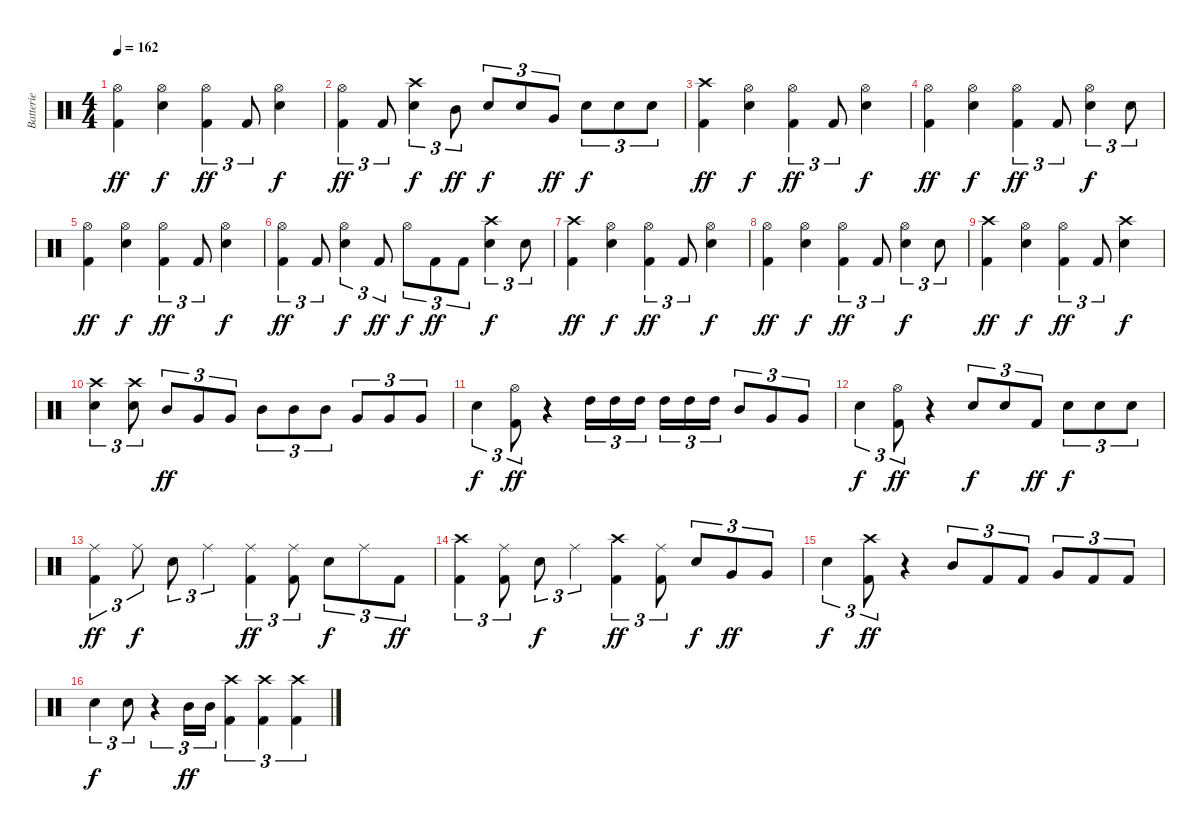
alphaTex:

\track ("Batterie" "Batterie") {instrument percussion}
\staff {score}
\articulation defaults
\ts (4 4)
\tempo 162
\clef neutral
\ks c
("Hi-Hat (open)" "Kick (hit) 2").4{dy ff} ("Hi-Hat (open)" "Snare (hit) 2").4{dy f} ("Hi-Hat (open)" "Kick (hit) 2").4{tu (3 2) dy ff} "Kick (hit) 2".8{tu (3 2)} ("Hi-Hat (open)" "Snare (hit) 2").4{dy f} |
("Hi-Hat (open)" "Kick (hit) 2").4{tu (3 2) dy ff} "Kick (hit) 2".8{tu (3 2)} ("Crash high (hit)" "Snare (hit) 2").4{tu (3 2) dy f} "Mid Tom (hit)".8{tu (3 2) dy ff} "Snare (hit) 2".8{tu (3 2) dy f} "Snare (hit) 2".8{tu (3 2)} "Very Low Tom (hit)".8{tu (3 2) dy ff} "Snare (hit) 2".8{tu (3 2) dy f} "Snare (hit) 2".8{tu (3 2)} "Snare (hit) 2".8{tu (3 2)} |
("Crash high (hit)" "Kick (hit) 2").4{dy ff} ("Hi-Hat (open)" "Snare (hit) 2").4{dy f} ("Hi-Hat (open)" "Kick (hit) 2").4{tu (3 2) dy ff} "Kick (hit) 2".8{tu (3 2)} ("Hi-Hat (open)" "Snare (hit) 2").4{dy f} |
("Hi-Hat (open)" "Kick (hit) 2").4{dy ff} ("Hi-Hat (open)" "Snare (hit) 2").4{dy f} ("Hi-Hat (open)" "Kick (hit) 2").4{tu (3 2) dy ff} "Kick (hit) 2".8{tu (3 2)} ("Hi-Hat (open)" "Snare (hit) 2").4{tu (3 2) dy f} "Snare (hit) 2".8{tu (3 2)} |
("Hi-Hat (open)" "Kick (hit) 2").4{dy ff} ("Hi-Hat (open)" "Snare (hit) 2").4{dy f} ("Hi-Hat (open)" "Kick (hit) 2").4{tu (3 2) dy ff} "Kick (hit) 2".8{tu (3 2)} ("Hi-Hat (open)" "Snare (hit) 2").4{dy f} |
("Hi-Hat (open)" "Kick (hit) 2").4{tu (3 2) dy ff} "Kick (hit) 2".8{tu (3 2)} ("Hi-Hat (open)" "Snare (hit) 2").4{tu (3 2) dy f} "Kick (hit) 2".8{tu (3 2) dy ff} "Hi-Hat (open)".8{tu (3 2) dy f} "Kick (hit) 2".8{tu (3 2) dy ff} "Kick (hit) 2".8{tu (3 2)} ("Crash high (hit)" "Snare (hit) 2").4{tu (3 2) dy f} "Snare (hit) 2".8{tu (3 2)} |
("Crash high (hit)" "Kick (hit) 2").4{dy ff} ("Hi-Hat (open)" "Snare (hit) 2").4{dy f} ("Hi-Hat (open)" "Kick (hit) 2").4{tu (3 2) dy ff} "Kick (hit) 2".8{tu (3 2)} ("Hi-Hat (open)" "Snare (hit) 2").4{dy f} |
("Hi-Hat (open)" "Kick (hit) 2").4{dy ff} ("Hi-Hat (open)" "Snare (hit) 2").4{dy f} ("Hi-Hat (open)" "Kick (hit) 2").4{tu (3 2) dy ff} "Kick (hit) 2".8{tu (3 2)} ("Hi-Hat (open)" "Snare (hit) 2").4{tu (3 2) dy f} "Snare (hit) 2".8{tu (3 2)} |
("Crash high (hit)" "Kick (hit) 2").4{dy ff} ("Hi-Hat (open)" "Snare (hit) 2").4{dy f} ("Hi-Hat (open)" "Kick (hit) 2").4{tu (3 2) dy ff} "Kick (hit) 2".8{tu (3 2)} ("Crash high (hit)" "Snare (hit) 2").4{dy f} |
("Crash high (hit)" "Snare (hit) 2").4{tu (3 2)} ("Crash high (hit)" "Snare (hit) 2").8{tu (3 2)} "Mid Tom (hit)".8{tu (3 2) dy ff} "Very Low Tom (hit)".8{tu (3 2)} "Very Low Tom (hit)".8{tu (3 2)} "Mid Tom (hit)".8{tu (3 2)} "Mid Tom (hit)".8{tu (3 2)} "Mid Tom (hit)".8{tu (3 2)} "Very Low Tom (hit)".8{tu (3 2)} "Very Low Tom (hit)".8{tu (3 2)} "Very Low Tom (hit)".8{tu (3 2)} |
"Snare (hit) 2".4{tu (3 2) dy f} ("Hi-Hat (open)" "Kick (hit) 2").8{tu (3 2) dy ff} r.4 "High Tom (hit)".16{tu (3 2)} "High Tom (hit)".16{tu (3 2)} "High Tom (hit)".16{tu (3 2) beam splitsecondary} "High Tom (hit)".16{tu (3 2)} "High Tom (hit)".16{tu (3 2)} "High Tom (hit)".16{tu (3 2)} "Mid Tom (hit)".8{tu (3 2)} "Very Low Tom (hit)".8{tu (3 2)} "Very Low Tom (hit)".8{tu (3 2)} |
"Snare (hit) 2".4{tu (3 2) dy f} ("Hi-Hat (open)" "Kick (hit) 2").8{tu (3 2) dy ff} r.4 "Snare (hit) 2".8{tu (3 2) dy f} "Snare (hit) 2".8{tu (3 2)} "Kick (hit) 2".8{tu (3 2) dy ff} "Snare (hit) 2".8{tu (3 2) dy f} "Snare (hit) 2".8{tu (3 2)} "Snare (hit) 2".8{tu (3 2)} |
("Ride (middle)" "Kick (hit) 2").4{tu (3 2) dy ff} "Ride (middle)".8{tu (3 2) dy f} "Snare (hit) 2".8{tu (3 2)} "Ride (middle)".4{tu (3 2)} ("Ride (middle)" "Kick (hit) 2").4{tu (3 2) dy ff} ("Ride (middle)" "Kick (hit) 2").8{tu (3 2)} "Snare (hit) 2".8{tu (3 2) dy f} "Ride (middle)".8{tu (3 2)} "Kick (hit) 2".8{tu (3 2) dy ff} |
("Crash high (hit)" "Kick (hit) 2").4{tu (3 2)} ("Ride (middle)" "Kick (hit) 2").8{tu (3 2)} "Snare (hit) 2".8{tu (3 2) dy f} "Ride (middle)".4{tu (3 2)} ("Crash high (hit)" "Kick (hit) 2").4{tu (3 2) dy ff} ("Ride (middle)" "Kick (hit) 2").8{tu (3 2)} "Snare (hit) 2".8{tu (3 2) dy f} "Very Low Tom (hit)".8{tu (3 2) dy ff} "Very Low Tom (hit)".8{tu (3 2)} |
"Snare (hit) 2".4{tu (3 2) dy f} ("Crash high (hit)" "Kick (hit) 2").8{tu (3 2) dy ff} r.4 "Mid Tom (hit)".8{tu (3 2)} "Kick (hit) 2".8{tu (3 2)} "Kick (hit) 2".8{tu (3 2)} "Very Low Tom (hit)".8{tu (3 2)} "Kick (hit) 2".8{tu (3 2)} "Kick (hit) 2".8{tu (3 2)} |
"Snare (hit) 2".4{tu (3 2) dy f} "Snare (hit) 2".8{tu (3 2)} r.4{tu (3 2)} "Mid Tom (hit)".16{tu (3 2) dy ff} "Mid Tom (hit)".16{tu (3 2)} ("Crash high (hit)" "Kick (hit) 2").4{tu (3 2)} ("Crash high (hit)" "Kick (hit) 2").4{tu (3 2)} ("Crash high (hit)" "Kick (hit) 2").4{tu (3 2)}
